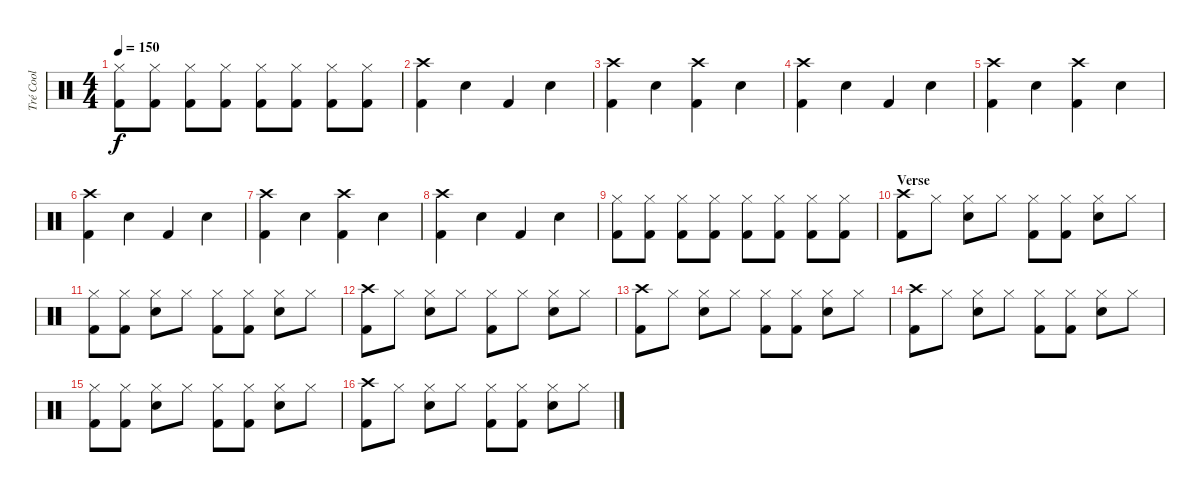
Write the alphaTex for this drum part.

\track ("Tré Cool" "Tré Cool") {instrument percussion}
\staff {score}
\articulation defaults
\ts (4 4)
\tempo 150
\clef neutral
\ks c
("Kick (hit) 2" "Hi-Hat (closed)").8{dy f} ("Kick (hit) 2" "Hi-Hat (closed)").8 ("Kick (hit) 2" "Hi-Hat (closed)").8 ("Kick (hit) 2" "Hi-Hat (closed)").8 ("Kick (hit) 2" "Hi-Hat (closed)").8 ("Kick (hit) 2" "Hi-Hat (closed)").8 ("Kick (hit) 2" "Hi-Hat (closed)").8 ("Kick (hit) 2" "Hi-Hat (closed)").8 |
("Kick (hit) 2" "Crash high (hit)").4 "Snare (hit) 2".4 "Kick (hit) 2".4 "Snare (hit) 2".4 |
("Kick (hit) 2" "Crash high (hit)").4 "Snare (hit) 2".4 ("Kick (hit) 2" "Crash high (hit)").4 "Snare (hit) 2".4 |
("Kick (hit) 2" "Crash high (hit)").4 "Snare (hit) 2".4 "Kick (hit) 2".4 "Snare (hit) 2".4 |
("Kick (hit) 2" "Crash high (hit)").4 "Snare (hit) 2".4 ("Kick (hit) 2" "Crash high (hit)").4 "Snare (hit) 2".4 |
("Kick (hit) 2" "Crash high (hit)").4 "Snare (hit) 2".4 "Kick (hit) 2".4 "Snare (hit) 2".4 |
("Kick (hit) 2" "Crash high (hit)").4 "Snare (hit) 2".4 ("Kick (hit) 2" "Crash high (hit)").4 "Snare (hit) 2".4 |
("Kick (hit) 2" "Crash high (hit)").4 "Snare (hit) 2".4 "Kick (hit) 2".4 "Snare (hit) 2".4 |
("Kick (hit) 2" "Hi-Hat (closed)").8 ("Kick (hit) 2" "Hi-Hat (closed)").8 ("Kick (hit) 2" "Hi-Hat (closed)").8 ("Kick (hit) 2" "Hi-Hat (closed)").8 ("Kick (hit) 2" "Hi-Hat (closed)").8 ("Kick (hit) 2" "Hi-Hat (closed)").8 ("Kick (hit) 2" "Hi-Hat (closed)").8 ("Kick (hit) 2" "Hi-Hat (closed)").8 |
\section ("" "Verse")
("Kick (hit) 2" "Crash high (hit)").8 "Hi-Hat (closed)".8 ("Snare (hit) 2" "Hi-Hat (closed)").8 "Hi-Hat (closed)".8 ("Kick (hit) 2" "Hi-Hat (closed)").8 ("Kick (hit) 2" "Hi-Hat (closed)").8 ("Snare (hit) 2" "Hi-Hat (closed)").8 "Hi-Hat (closed)".8 |
("Kick (hit) 2" "Hi-Hat (closed)").8 ("Kick (hit) 2" "Hi-Hat (closed)").8 ("Snare (hit) 2" "Hi-Hat (closed)").8 "Hi-Hat (closed)".8 ("Kick (hit) 2" "Hi-Hat (closed)").8 ("Kick (hit) 2" "Hi-Hat (closed)").8 ("Snare (hit) 2" "Hi-Hat (closed)").8 "Hi-Hat (closed)".8 |
("Kick (hit) 2" "Crash high (hit)").8 "Hi-Hat (closed)".8 ("Snare (hit) 2" "Hi-Hat (closed)").8 "Hi-Hat (closed)".8 ("Kick (hit) 2" "Hi-Hat (closed)").8 "Hi-Hat (closed)".8 ("Snare (hit) 2" "Hi-Hat (closed)").8 "Hi-Hat (closed)".8 |
("Kick (hit) 2" "Crash high (hit)").8 "Hi-Hat (closed)".8 ("Snare (hit) 2" "Hi-Hat (closed)").8 "Hi-Hat (closed)".8 ("Kick (hit) 2" "Hi-Hat (closed)").8 ("Kick (hit) 2" "Hi-Hat (closed)").8 ("Snare (hit) 2" "Hi-Hat (closed)").8 "Hi-Hat (closed)".8 |
("Kick (hit) 2" "Crash high (hit)").8 "Hi-Hat (closed)".8 ("Snare (hit) 2" "Hi-Hat (closed)").8 "Hi-Hat (closed)".8 ("Kick (hit) 2" "Hi-Hat (closed)").8 ("Kick (hit) 2" "Hi-Hat (closed)").8 ("Snare (hit) 2" "Hi-Hat (closed)").8 "Hi-Hat (closed)".8 |
("Kick (hit) 2" "Hi-Hat (closed)").8 ("Kick (hit) 2" "Hi-Hat (closed)").8 ("Snare (hit) 2" "Hi-Hat (closed)").8 "Hi-Hat (closed)".8 ("Kick (hit) 2" "Hi-Hat (closed)").8 ("Kick (hit) 2" "Hi-Hat (closed)").8 ("Snare (hit) 2" "Hi-Hat (closed)").8 "Hi-Hat (closed)".8 |
("Kick (hit) 2" "Crash high (hit)").8 "Hi-Hat (closed)".8 ("Snare (hit) 2" "Hi-Hat (closed)").8 "Hi-Hat (closed)".8 ("Kick (hit) 2" "Hi-Hat (closed)").8 ("Kick (hit) 2" "Hi-Hat (closed)").8 ("Snare (hit) 2" "Hi-Hat (closed)").8 "Hi-Hat (closed)".8
